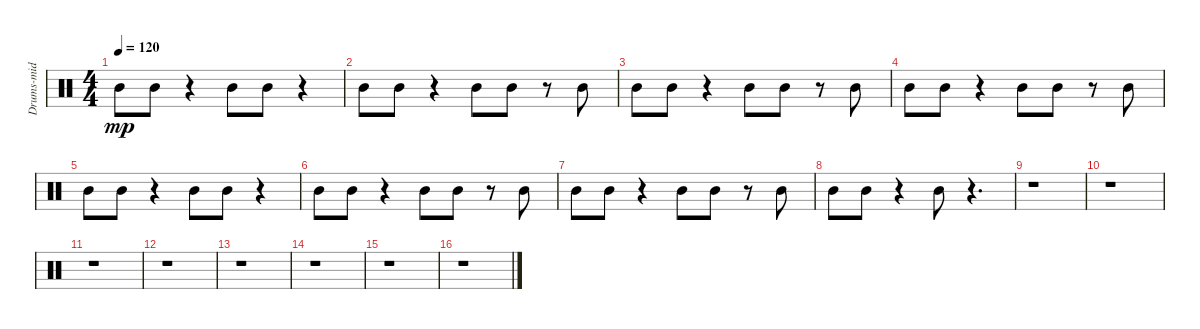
\track ("Drums-mid tom 1" "Drums-mid ") {instrument percussion}
\staff {score}
\articulation defaults
\ts (4 4)
\tempo 120
\clef neutral
\ks c "Mid Tom (hit)".8{dy mp} "Mid Tom (hit)".8
r.4 "Mid Tom (hit)".8 "Mid Tom (hit)".8 r.4 |
"Mid Tom (hit)".8 "Mid Tom (hit)".8 r.4 "Mid Tom (hit)".8 "Mid Tom (hit)".8 r.8 "Mid Tom (hit)".8 |
"Mid Tom (hit)".8 "Mid Tom (hit)".8 r.4 "Mid Tom (hit)".8 "Mid Tom (hit)".8 r.8 "Mid Tom (hit)".8 |
"Mid Tom (hit)".8 "Mid Tom (hit)".8 r.4 "Mid Tom (hit)".8 "Mid Tom (hit)".8 r.8 "Mid Tom (hit)".8 |
"Mid Tom (hit)".8 "Mid Tom (hit)".8 r.4 "Mid Tom (hit)".8 "Mid Tom (hit)".8 r.4 |
"Mid Tom (hit)".8 "Mid Tom (hit)".8 r.4 "Mid Tom (hit)".8 "Mid Tom (hit)".8 r.8 "Mid Tom (hit)".8 |
"Mid Tom (hit)".8 "Mid Tom (hit)".8 r.4 "Mid Tom (hit)".8 "Mid Tom (hit)".8 r.8 "Mid Tom (hit)".8 |
"Mid Tom (hit)".8 "Mid Tom (hit)".8 r.4 "Mid Tom (hit)".8 r.4{d} |
r.1 |
r.1 |
r.1 |
r.1 |
r.1 |
r.1 |
r.1 |
r.1
